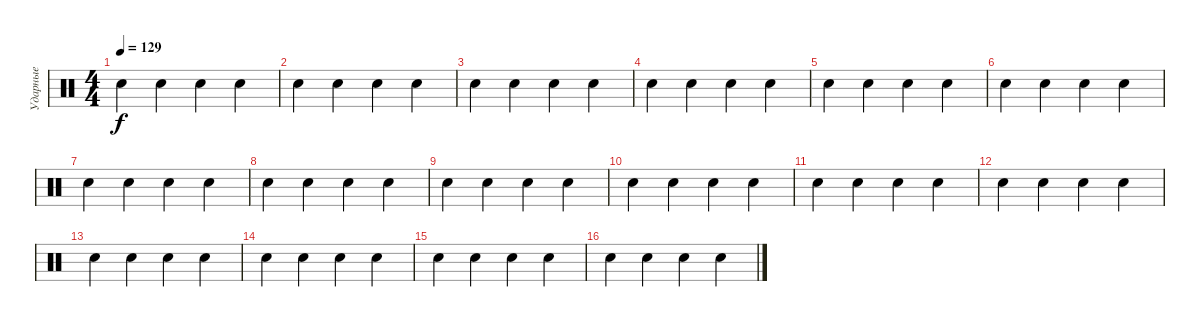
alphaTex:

\track ("Ударные" "Ударные") {instrument percussion}
\staff {score}
\articulation defaults
\ts (4 4)
\tempo 129
\clef neutral
\ks c "Hand Clap (hit)".4{dy f} "Hand Clap (hit)".4 "Hand Clap (hit)".4 "Hand Clap (hit)".4
|
"Hand Clap (hit)".4 "Hand Clap (hit)".4 "Hand Clap (hit)".4 "Hand Clap (hit)".4 |
"Hand Clap (hit)".4 "Hand Clap (hit)".4 "Hand Clap (hit)".4 "Hand Clap (hit)".4 |
"Hand Clap (hit)".4 "Hand Clap (hit)".4 "Hand Clap (hit)".4 "Hand Clap (hit)".4 |
"Hand Clap (hit)".4 "Hand Clap (hit)".4 "Hand Clap (hit)".4 "Hand Clap (hit)".4 |
"Hand Clap (hit)".4 "Hand Clap (hit)".4 "Hand Clap (hit)".4 "Hand Clap (hit)".4 |
"Hand Clap (hit)".4 "Hand Clap (hit)".4 "Hand Clap (hit)".4 "Hand Clap (hit)".4 |
"Hand Clap (hit)".4 "Hand Clap (hit)".4 "Hand Clap (hit)".4 "Hand Clap (hit)".4 |
"Hand Clap (hit)".4 "Hand Clap (hit)".4 "Hand Clap (hit)".4 "Hand Clap (hit)".4 |
"Hand Clap (hit)".4 "Hand Clap (hit)".4 "Hand Clap (hit)".4 "Hand Clap (hit)".4 |
"Hand Clap (hit)".4 "Hand Clap (hit)".4 "Hand Clap (hit)".4 "Hand Clap (hit)".4 |
"Hand Clap (hit)".4 "Hand Clap (hit)".4 "Hand Clap (hit)".4 "Hand Clap (hit)".4 |
"Hand Clap (hit)".4 "Hand Clap (hit)".4 "Hand Clap (hit)".4 "Hand Clap (hit)".4 |
"Hand Clap (hit)".4 "Hand Clap (hit)".4 "Hand Clap (hit)".4 "Hand Clap (hit)".4 |
"Hand Clap (hit)".4 "Hand Clap (hit)".4 "Hand Clap (hit)".4 "Hand Clap (hit)".4 |
"Hand Clap (hit)".4 "Hand Clap (hit)".4 "Hand Clap (hit)".4 "Hand Clap (hit)".4
